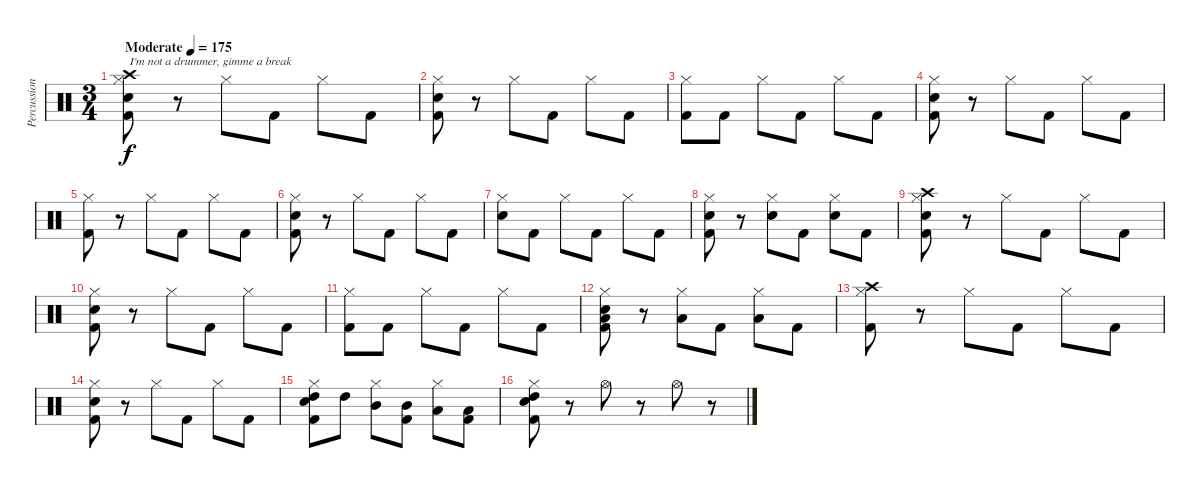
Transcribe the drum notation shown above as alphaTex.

\track ("Percussion" "Percussion") {instrument percussion}
\staff {score}
\articulation defaults
\ts (3 4)
\tempo (175 "Moderate")
\clef neutral
\ks c
("Hi-Hat (closed)" "Crash high (hit)" "Electric Snare (hit)" "Kick (hit) 2").8{txt "I'm not a drummer, gimme a break" dy f} r.8 "Hi-Hat (closed)".8 "Kick (hit) 2".8 "Hi-Hat (closed)".8 "Kick (hit) 2".8 |
("Hi-Hat (closed)" "Electric Snare (hit)" "Kick (hit) 2").8 r.8 "Hi-Hat (closed)".8 "Kick (hit) 2".8 "Hi-Hat (closed)".8 "Kick (hit) 2".8 |
("Hi-Hat (closed)" "Kick (hit) 2").8 "Kick (hit) 2".8 "Hi-Hat (closed)".8 "Kick (hit) 2".8 "Hi-Hat (closed)".8 "Kick (hit) 2".8 |
("Hi-Hat (closed)" "Electric Snare (hit)" "Kick (hit) 2").8 r.8 "Hi-Hat (closed)".8 "Kick (hit) 2".8 "Hi-Hat (closed)".8 "Kick (hit) 2".8 |
("Hi-Hat (closed)" "Kick (hit) 2").8 r.8 "Hi-Hat (closed)".8 "Kick (hit) 2".8 "Hi-Hat (closed)".8 "Kick (hit) 2".8 |
("Hi-Hat (closed)" "Electric Snare (hit)" "Kick (hit) 2").8 r.8 "Hi-Hat (closed)".8 "Kick (hit) 2".8 "Hi-Hat (closed)".8 "Kick (hit) 2".8 |
("Hi-Hat (closed)" "Electric Snare (hit)").8 "Kick (hit) 2".8 "Hi-Hat (closed)".8 "Kick (hit) 2".8 "Hi-Hat (closed)".8 "Kick (hit) 2".8 |
("Hi-Hat (closed)" "Electric Snare (hit)" "Kick (hit) 2").8 r.8 ("Hi-Hat (closed)" "Electric Snare (hit)").8 "Kick (hit) 2".8 ("Hi-Hat (closed)" "Electric Snare (hit)").8 "Kick (hit) 2".8 |
("Hi-Hat (closed)" "Crash high (hit)" "Electric Snare (hit)" "Kick (hit) 2").8 r.8 "Hi-Hat (closed)".8 "Kick (hit) 2".8 "Hi-Hat (closed)".8 "Kick (hit) 2".8 |
("Hi-Hat (closed)" "Electric Snare (hit)" "Kick (hit) 2").8 r.8 "Hi-Hat (closed)".8 "Kick (hit) 2".8 "Hi-Hat (closed)".8 "Kick (hit) 2".8 |
("Hi-Hat (closed)" "Kick (hit) 2").8 "Kick (hit) 2".8 "Hi-Hat (closed)".8 "Kick (hit) 2".8 "Hi-Hat (closed)".8 "Kick (hit) 2".8 |
("Hi-Hat (closed)" "Low Tom (hit)" "Electric Snare (hit)" "Kick (hit) 2").8 r.8 ("Hi-Hat (closed)" "Low Tom (hit)").8 "Kick (hit) 2".8 ("Hi-Hat (closed)" "Low Tom (hit)").8 "Kick (hit) 2".8 |
("Hi-Hat (closed)" "Crash high (hit)" "Kick (hit) 2").8 r.8 "Hi-Hat (closed)".8 "Kick (hit) 2".8 "Hi-Hat (closed)".8 "Kick (hit) 2".8 |
("Hi-Hat (closed)" "Electric Snare (hit)" "Kick (hit) 2").8 r.8 "Hi-Hat (closed)".8 "Kick (hit) 2".8 "Hi-Hat (closed)".8 "Kick (hit) 2".8 |
("Hi-Hat (closed)" "High Tom (hit)" "Electric Snare (hit)" "Kick (hit) 2").8 "High Tom (hit)".8 ("Hi-Hat (closed)" "Mid Tom (hit)").8 ("Mid Tom (hit)" "Kick (hit) 2").8 ("Hi-Hat (closed)" "Low Tom (hit)").8 ("Low Tom (hit)" "Kick (hit) 2").8 |
("Hi-Hat (closed)" "High Tom (hit)" "Electric Snare (hit)" "Kick (hit) 2").8 r.8 "Hi-Hat (open)".8 r.8 "Hi-Hat (open)".8 r.8
